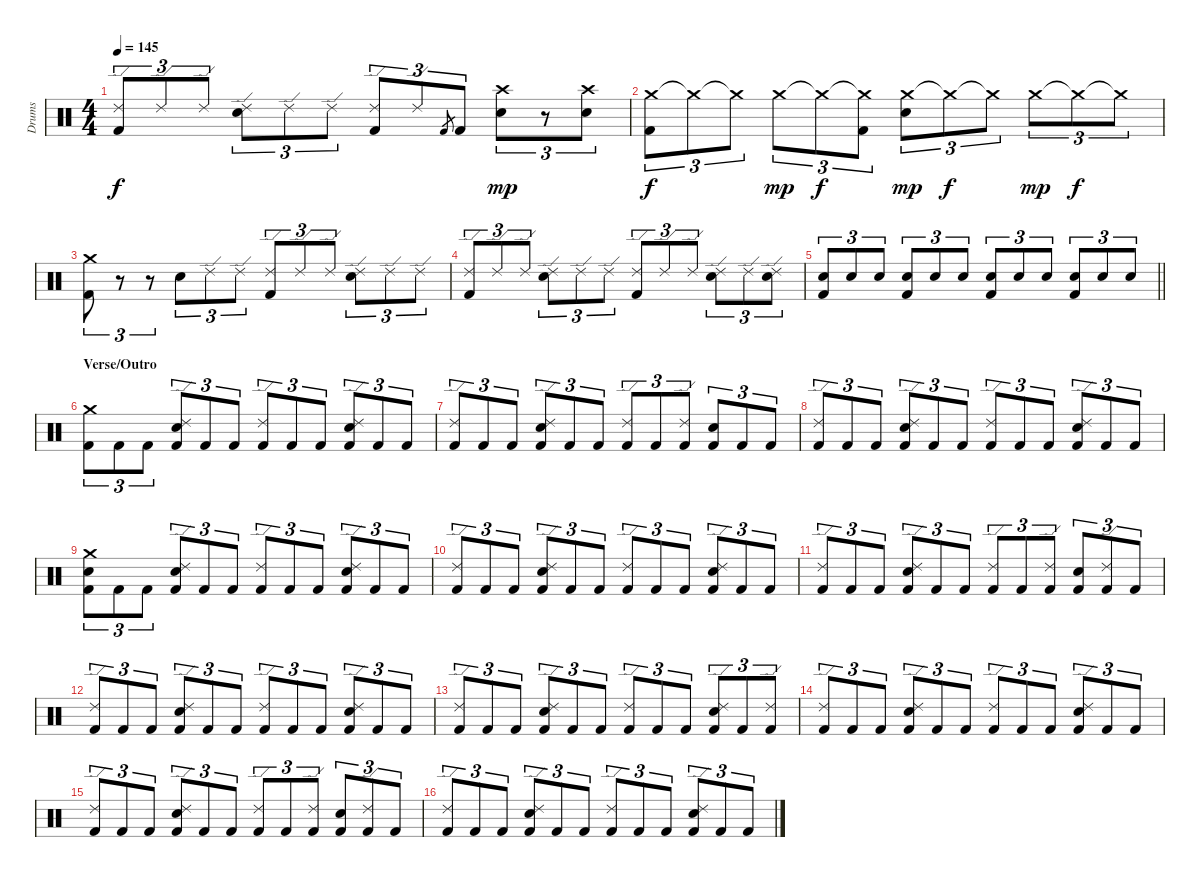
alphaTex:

\track ("Drums" "Drums") {instrument percussion}
\staff {score}
\articulation defaults
\ts (4 4)
\tempo 145
\clef neutral
\ks c
("Ride (edge) 2" "Kick (hit) 2").8{tu (3 2) dy f} "Ride (edge) 2".8{tu (3 2)} "Ride (edge) 2".8{tu (3 2)} ("Ride (edge) 2" "Snare (hit) 2").8{tu (3 2)} "Ride (edge) 2".8{tu (3 2)} "Ride (edge) 2".8{tu (3 2)} ("Ride (edge) 2" "Kick (hit) 2").8{tu (3 2)} "Ride (edge) 2".8{tu (3 2)} "Kick (hit) 2".8{gr} "Kick (hit) 2".8{tu (3 2)} ("Crash high (hit)" "Snare (hit) 2").8{tu (3 2) dy mp} r.8{tu (3 2)} ("Crash high (hit)" "Snare (hit) 2").8{tu (3 2)} |
("Crash medium (hit)" "Kick (hit) 2").8{tu (3 2) dy f} "Crash medium (hit)"{t}.8{tu (3 2)} "Crash medium (hit)"{t}.8{tu (3 2)} "Crash medium (hit)".8{tu (3 2) dy mp} "Crash medium (hit)"{t}.8{tu (3 2) dy f} ("Crash medium (hit)"{t} "Kick (hit) 2").8{tu (3 2)} ("Crash medium (hit)" "Snare (hit) 2").8{tu (3 2) dy mp} "Crash medium (hit)"{t}.8{tu (3 2) dy f} "Crash medium (hit)"{t}.8{tu (3 2)} "Crash medium (hit)".8{tu (3 2) dy mp} "Crash medium (hit)"{t}.8{tu (3 2) dy f} "Crash medium (hit)"{t}.8{tu (3 2)} |
("Crash medium (hit)" "Kick (hit) 2").8{tu (3 2)} r.8{tu (3 2)} r.8{tu (3 2)} "Snare (hit) 2".8{tu (3 2)} "Ride (edge) 2".8{tu (3 2)} "Ride (edge) 2".8{tu (3 2)} ("Ride (edge) 2" "Kick (hit) 2").8{tu (3 2)} "Ride (edge) 2".8{tu (3 2)} "Ride (edge) 2".8{tu (3 2)} ("Ride (edge) 2" "Snare (hit) 2").8{tu (3 2)} "Ride (edge) 2".8{tu (3 2)} "Ride (edge) 2".8{tu (3 2)} |
("Ride (edge) 2" "Kick (hit) 2").8{tu (3 2)} "Ride (edge) 2".8{tu (3 2)} "Ride (edge) 2".8{tu (3 2)} ("Ride (edge) 2" "Snare (hit) 2").8{tu (3 2)} "Ride (edge) 2".8{tu (3 2)} "Ride (edge) 2".8{tu (3 2)} ("Ride (edge) 2" "Kick (hit) 2").8{tu (3 2)} "Ride (edge) 2".8{tu (3 2)} "Ride (edge) 2".8{tu (3 2)} ("Ride (edge) 2" "Snare (hit) 2").8{tu (3 2)} "Ride (edge) 2".8{tu (3 2)} ("Ride (edge) 2" "Snare (hit) 2").8{tu (3 2)} |
\barLineRight lightlight
("Snare (hit) 2" "Kick (hit) 2").8{tu (3 2)} "Snare (hit) 2".8{tu (3 2)} "Snare (hit) 2".8{tu (3 2)} ("Snare (hit) 2" "Kick (hit) 2").8{tu (3 2)} "Snare (hit) 2".8{tu (3 2)} "Snare (hit) 2".8{tu (3 2)} ("Snare (hit) 2" "Kick (hit) 2").8{tu (3 2)} "Snare (hit) 2".8{tu (3 2)} "Snare (hit) 2".8{tu (3 2)} ("Snare (hit) 2" "Kick (hit) 2").8{tu (3 2)} "Snare (hit) 2".8{tu (3 2)} "Snare (hit) 2".8{tu (3 2)} |
\section ("" "Verse/Outro")
("Crash medium (hit)" "Kick (hit) 2").8{tu (3 2)} "Kick (hit) 2".8{tu (3 2)} "Kick (hit) 2".8{tu (3 2)} ("Ride (edge) 2" "Snare (hit) 2" "Kick (hit) 2").8{tu (3 2)} "Kick (hit) 2".8{tu (3 2)} "Kick (hit) 2".8{tu (3 2)} ("Ride (edge) 2" "Kick (hit) 2").8{tu (3 2)} "Kick (hit) 2".8{tu (3 2)} "Kick (hit) 2".8{tu (3 2)} ("Ride (edge) 2" "Snare (hit) 2" "Kick (hit) 2").8{tu (3 2)} "Kick (hit) 2".8{tu (3 2)} "Kick (hit) 2".8{tu (3 2)} |
("Ride (edge) 2" "Kick (hit) 2").8{tu (3 2)} "Kick (hit) 2".8{tu (3 2)} "Kick (hit) 2".8{tu (3 2)} ("Ride (edge) 2" "Snare (hit) 2" "Kick (hit) 2").8{tu (3 2)} "Kick (hit) 2".8{tu (3 2)} "Kick (hit) 2".8{tu (3 2)} ("Ride (edge) 2" "Kick (hit) 2").8{tu (3 2)} "Kick (hit) 2".8{tu (3 2)} ("Ride (edge) 2" "Kick (hit) 2").8{tu (3 2)} ("Snare (hit) 2" "Kick (hit) 2").8{tu (3 2)} "Kick (hit) 2".8{tu (3 2)} "Kick (hit) 2".8{tu (3 2)} |
("Ride (edge) 2" "Kick (hit) 2").8{tu (3 2)} "Kick (hit) 2".8{tu (3 2)} "Kick (hit) 2".8{tu (3 2)} ("Ride (edge) 2" "Snare (hit) 2" "Kick (hit) 2").8{tu (3 2)} "Kick (hit) 2".8{tu (3 2)} "Kick (hit) 2".8{tu (3 2)} ("Ride (edge) 2" "Kick (hit) 2").8{tu (3 2)} "Kick (hit) 2".8{tu (3 2)} "Kick (hit) 2".8{tu (3 2)} ("Ride (edge) 2" "Snare (hit) 2" "Kick (hit) 2").8{tu (3 2)} "Kick (hit) 2".8{tu (3 2)} "Kick (hit) 2".8{tu (3 2)} |
("Crash medium (hit)" "Snare (hit) 2" "Kick (hit) 2").8{tu (3 2)} "Kick (hit) 2".8{tu (3 2)} "Kick (hit) 2".8{tu (3 2)} ("Ride (edge) 2" "Snare (hit) 2" "Kick (hit) 2").8{tu (3 2)} "Kick (hit) 2".8{tu (3 2)} "Kick (hit) 2".8{tu (3 2)} ("Ride (edge) 2" "Kick (hit) 2").8{tu (3 2)} "Kick (hit) 2".8{tu (3 2)} "Kick (hit) 2".8{tu (3 2)} ("Ride (edge) 2" "Snare (hit) 2" "Kick (hit) 2").8{tu (3 2)} "Kick (hit) 2".8{tu (3 2)} "Kick (hit) 2".8{tu (3 2)} |
("Ride (edge) 2" "Kick (hit) 2").8{tu (3 2)} "Kick (hit) 2".8{tu (3 2)} "Kick (hit) 2".8{tu (3 2)} ("Ride (edge) 2" "Snare (hit) 2" "Kick (hit) 2").8{tu (3 2)} "Kick (hit) 2".8{tu (3 2)} "Kick (hit) 2".8{tu (3 2)} ("Ride (edge) 2" "Kick (hit) 2").8{tu (3 2)} "Kick (hit) 2".8{tu (3 2)} "Kick (hit) 2".8{tu (3 2)} ("Ride (edge) 2" "Snare (hit) 2" "Kick (hit) 2").8{tu (3 2)} "Kick (hit) 2".8{tu (3 2)} "Kick (hit) 2".8{tu (3 2)} |
("Ride (edge) 2" "Kick (hit) 2").8{tu (3 2)} "Kick (hit) 2".8{tu (3 2)} "Kick (hit) 2".8{tu (3 2)} ("Ride (edge) 2" "Snare (hit) 2" "Kick (hit) 2").8{tu (3 2)} "Kick (hit) 2".8{tu (3 2)} "Kick (hit) 2".8{tu (3 2)} ("Ride (edge) 2" "Kick (hit) 2").8{tu (3 2)} "Kick (hit) 2".8{tu (3 2)} ("Ride (edge) 2" "Kick (hit) 2").8{tu (3 2)} ("Snare (hit) 2" "Kick (hit) 2").8{tu (3 2)} ("Ride (edge) 2" "Kick (hit) 2").8{tu (3 2)} "Kick (hit) 2".8{tu (3 2)} |
("Ride (edge) 2" "Kick (hit) 2").8{tu (3 2)} "Kick (hit) 2".8{tu (3 2)} "Kick (hit) 2".8{tu (3 2)} ("Ride (edge) 2" "Snare (hit) 2" "Kick (hit) 2").8{tu (3 2)} "Kick (hit) 2".8{tu (3 2)} "Kick (hit) 2".8{tu (3 2)} ("Ride (edge) 2" "Kick (hit) 2").8{tu (3 2)} "Kick (hit) 2".8{tu (3 2)} "Kick (hit) 2".8{tu (3 2)} ("Ride (edge) 2" "Snare (hit) 2" "Kick (hit) 2").8{tu (3 2)} "Kick (hit) 2".8{tu (3 2)} "Kick (hit) 2".8{tu (3 2)} |
("Ride (edge) 2" "Kick (hit) 2").8{tu (3 2)} "Kick (hit) 2".8{tu (3 2)} "Kick (hit) 2".8{tu (3 2)} ("Ride (edge) 2" "Snare (hit) 2" "Kick (hit) 2").8{tu (3 2)} "Kick (hit) 2".8{tu (3 2)} "Kick (hit) 2".8{tu (3 2)} ("Ride (edge) 2" "Kick (hit) 2").8{tu (3 2)} "Kick (hit) 2".8{tu (3 2)} "Kick (hit) 2".8{tu (3 2)} ("Ride (edge) 2" "Snare (hit) 2" "Kick (hit) 2").8{tu (3 2)} "Kick (hit) 2".8{tu (3 2)} ("Ride (edge) 2" "Kick (hit) 2").8{tu (3 2)} |
("Ride (edge) 2" "Kick (hit) 2").8{tu (3 2)} "Kick (hit) 2".8{tu (3 2)} "Kick (hit) 2".8{tu (3 2)} ("Ride (edge) 2" "Snare (hit) 2" "Kick (hit) 2").8{tu (3 2)} "Kick (hit) 2".8{tu (3 2)} "Kick (hit) 2".8{tu (3 2)} ("Ride (edge) 2" "Kick (hit) 2").8{tu (3 2)} "Kick (hit) 2".8{tu (3 2)} "Kick (hit) 2".8{tu (3 2)} ("Ride (edge) 2" "Snare (hit) 2" "Kick (hit) 2").8{tu (3 2)} "Kick (hit) 2".8{tu (3 2)} "Kick (hit) 2".8{tu (3 2)} |
("Ride (edge) 2" "Kick (hit) 2").8{tu (3 2)} "Kick (hit) 2".8{tu (3 2)} "Kick (hit) 2".8{tu (3 2)} ("Ride (edge) 2" "Snare (hit) 2" "Kick (hit) 2").8{tu (3 2)} "Kick (hit) 2".8{tu (3 2)} "Kick (hit) 2".8{tu (3 2)} ("Ride (edge) 2" "Kick (hit) 2").8{tu (3 2)} "Kick (hit) 2".8{tu (3 2)} ("Ride (edge) 2" "Kick (hit) 2").8{tu (3 2)} ("Snare (hit) 2" "Kick (hit) 2").8{tu (3 2)} ("Ride (edge) 2" "Kick (hit) 2").8{tu (3 2)} "Kick (hit) 2".8{tu (3 2)} |
("Ride (edge) 2" "Kick (hit) 2").8{tu (3 2)} "Kick (hit) 2".8{tu (3 2)} "Kick (hit) 2".8{tu (3 2)} ("Ride (edge) 2" "Snare (hit) 2" "Kick (hit) 2").8{tu (3 2)} "Kick (hit) 2".8{tu (3 2)} "Kick (hit) 2".8{tu (3 2)} ("Ride (edge) 2" "Kick (hit) 2").8{tu (3 2)} "Kick (hit) 2".8{tu (3 2)} "Kick (hit) 2".8{tu (3 2)} ("Ride (edge) 2" "Snare (hit) 2" "Kick (hit) 2").8{tu (3 2)} "Kick (hit) 2".8{tu (3 2)} "Kick (hit) 2".8{tu (3 2)}
